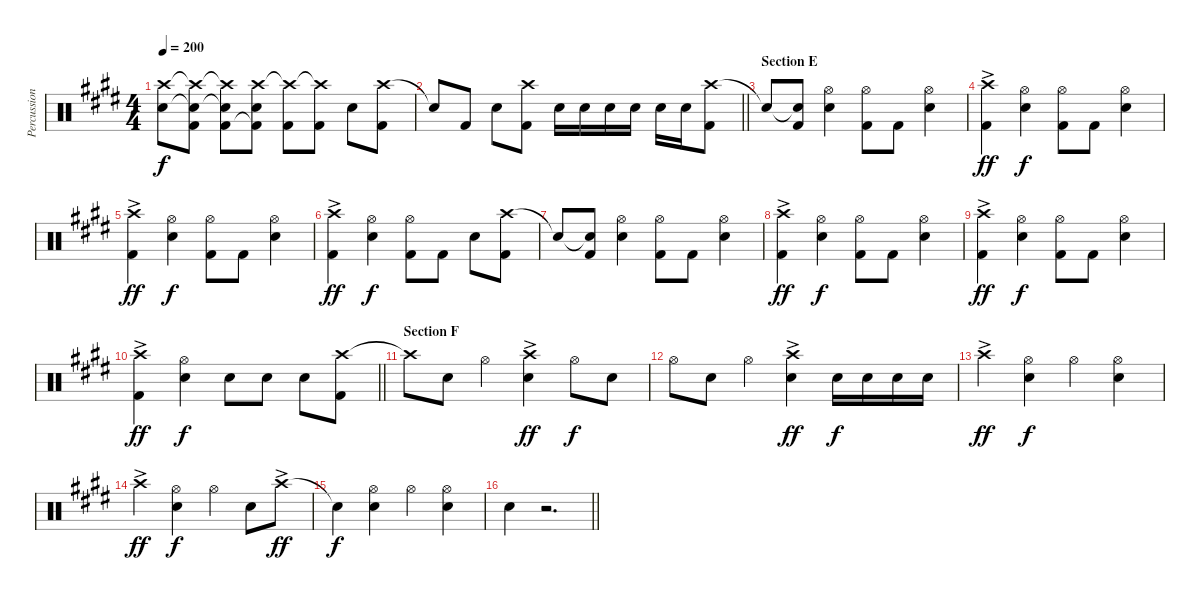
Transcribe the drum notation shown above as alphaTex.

\track ("Percussion - other" "Percussion") {instrument percussion}
\staff {score}
\articulation defaults
\ts (4 4)
\tempo 200
\clef neutral
\ks e
("Crash high (hit)" "Snare (hit) 2").8{dy f} ("Crash high (hit)"{t} "Snare (hit) 2"{t} "Kick (hit) 2").8 ("Crash high (hit)"{t} "Snare (hit) 2"{t} "Kick (hit) 2").8 ("Crash high (hit)" "Snare (hit) 2" "Kick (hit) 2"{t}).8 ("Crash high (hit)"{t} "Kick (hit) 2").8 ("Crash high (hit)"{t} "Kick (hit) 2").8 "Snare (hit) 2".8 ("Crash high (hit)" "Kick (hit) 2").8 |
\barLineRight lightlight "Snare (hit)"{t}.8 "Kick (hit) 2".8 "Snare (hit) 2".8
("Crash high (hit)" "Kick (hit) 2").8 "Snare (hit) 2".16 "Snare (hit) 2".16 "Snare (hit) 2".16 "Snare (hit) 2".16 "Snare (hit) 2".16 "Snare (hit) 2".16 ("Crash high (hit)" "Kick (hit) 2").8 |
\section ("" "Section E")
"Snare (hit)"{t}.8 ("Snare (hit)"{t} "Kick (hit) 2").8 ("Hi-Hat (open)" "Snare (hit) 2").4 ("Hi-Hat (open)" "Kick (hit) 2").8 "Kick (hit) 2".8 ("Hi-Hat (open)" "Snare (hit) 2").4 |
("Crash high (hit)"{ac} "Kick (hit) 2").4{dy ff} ("Hi-Hat (open)" "Snare (hit) 2").4{dy f} ("Hi-Hat (open)" "Kick (hit) 2").8 "Kick (hit) 2".8 ("Hi-Hat (open)" "Snare (hit) 2").4 |
("Crash high (hit)"{ac} "Kick (hit) 2").4{dy ff} ("Hi-Hat (open)" "Snare (hit) 2").4{dy f} ("Hi-Hat (open)" "Kick (hit) 2").8 "Kick (hit) 2".8 ("Hi-Hat (open)" "Snare (hit) 2").4 |
("Crash high (hit)"{ac} "Kick (hit) 2").4{dy ff} ("Hi-Hat (open)" "Snare (hit) 2").4{dy f} ("Hi-Hat (open)" "Kick (hit) 2").8 "Kick (hit) 2".8 "Snare (hit) 2".8 ("Crash high (hit)" "Kick (hit) 2").8 |
"Snare (hit)"{t}.8 ("Snare (hit)"{t} "Kick (hit) 2").8 ("Hi-Hat (open)" "Snare (hit) 2").4 ("Hi-Hat (open)" "Kick (hit) 2").8 "Kick (hit) 2".8 ("Hi-Hat (open)" "Snare (hit) 2").4 |
("Crash high (hit)"{ac} "Kick (hit) 2").4{dy ff} ("Hi-Hat (open)" "Snare (hit) 2").4{dy f} ("Hi-Hat (open)" "Kick (hit) 2").8 "Kick (hit) 2".8 ("Hi-Hat (open)" "Snare (hit) 2").4 |
("Crash high (hit)"{ac} "Kick (hit) 2").4{dy ff} ("Hi-Hat (open)" "Snare (hit) 2").4{dy f} ("Hi-Hat (open)" "Kick (hit) 2").8 "Kick (hit) 2".8 ("Hi-Hat (open)" "Snare (hit) 2").4 |
\barLineRight lightlight
("Crash high (hit)"{ac} "Kick (hit) 2").4{dy ff} ("Hi-Hat (open)" "Snare (hit) 2").4{dy f} "Snare (hit) 2".8 "Snare (hit) 2".8 "Snare (hit) 2".8 ("Crash high (hit)" "Kick (hit) 2").8 |
\section ("" "Section F")
"Crash high (hit)"{t}.8 "Snare (hit) 2".8 "Hi-Hat (open)".4 ("Crash high (hit)"{ac} "Snare (hit) 2").4{dy ff} "Hi-Hat (open)".8{dy f} "Snare (hit) 2".8 |
"Hi-Hat (open)".8 "Snare (hit) 2".8 "Hi-Hat (open)".4 ("Crash high (hit)"{ac} "Snare (hit) 2").4{dy ff} "Snare (hit) 2".16{dy f} "Snare (hit) 2".16 "Snare (hit) 2".16 "Snare (hit) 2".16 |
"Crash high (hit)"{ac}.4{dy ff} ("Hi-Hat (open)" "Snare (hit) 2").4{dy f} "Hi-Hat (open)".4 ("Hi-Hat (open)" "Snare (hit) 2").4 |
"Crash high (hit)"{ac}.4{dy ff} ("Hi-Hat (open)" "Snare (hit) 2").4{dy f} "Hi-Hat (open)".4 "Snare (hit) 2".8 "Crash high (hit)"{ac}.8{dy ff} |
"Snare (hit)"{t}.4{dy f} ("Hi-Hat (open)" "Snare (hit) 2").4 "Hi-Hat (open)".4 ("Hi-Hat (open)" "Snare (hit) 2").4 |
\barLineRight lightlight "Snare (hit) 2".4
r.2{d}
